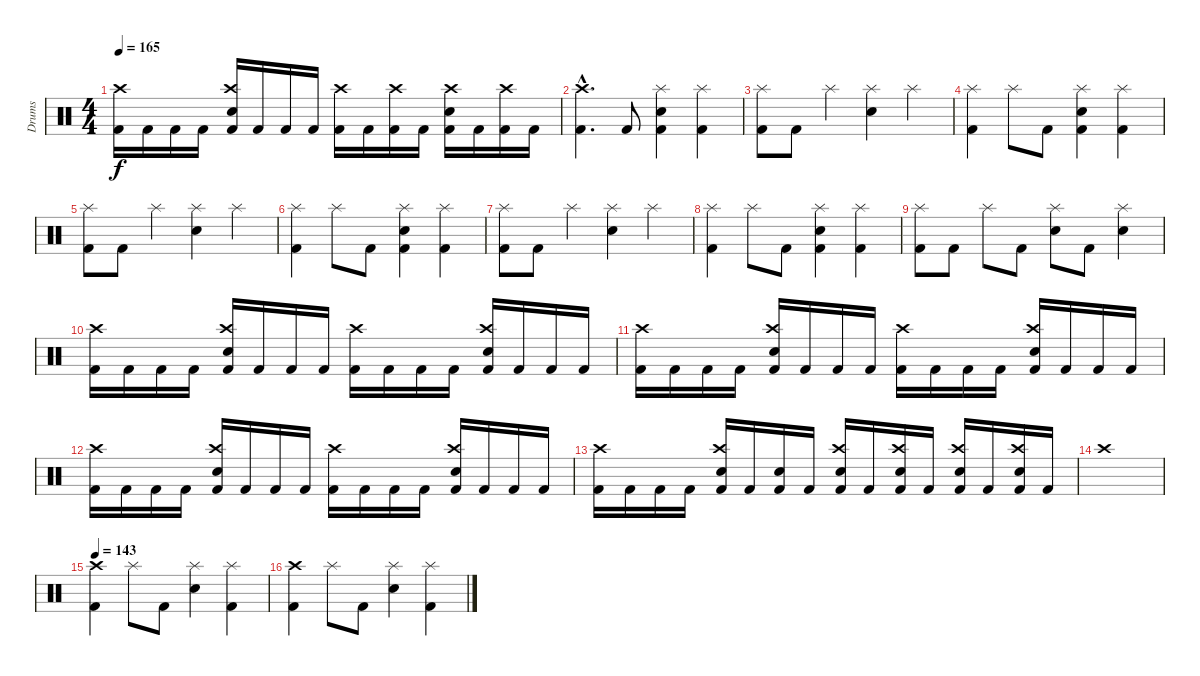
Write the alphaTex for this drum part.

\track ("Drums" "Drums") {instrument percussion}
\staff {score}
\articulation defaults
\ts (4 4)
\tempo 165
\clef neutral
\ks c
("Kick (hit) 2" "Crash high (hit)").16{dy f} "Kick (hit) 2".16 "Kick (hit) 2".16 "Kick (hit) 2".16 ("Kick (hit) 2" "Snare (hit) 2" "Crash high (hit)").16 "Kick (hit) 2".16 "Kick (hit) 2".16 "Kick (hit) 2".16 ("Kick (hit) 2" "Crash high (hit)").16 "Kick (hit) 2".16 ("Kick (hit) 2" "Crash high (hit)").16 "Kick (hit) 2".16 ("Kick (hit) 2" "Snare (hit) 2" "Crash high (hit)").16 "Kick (hit) 2".16 ("Kick (hit) 2" "Crash high (hit)").16 "Kick (hit) 2".16 |
("Kick (hit) 2"{hac} "Crash high (hit)"{hac}).4{d} "Kick (hit) 2".8 ("Kick (hit) 2" "Snare (hit) 2" "Splash (hit)").4 ("Kick (hit) 2" "Splash (hit)").4 |
("Kick (hit) 2" "Splash (hit)").8 "Kick (hit) 2".8 "Splash (hit)".4 ("Snare (hit) 2" "Splash (hit)").4 "Splash (hit)".4 |
("Kick (hit) 2" "Splash (hit)").4 "Splash (hit)".8 "Kick (hit) 2".8 ("Kick (hit) 2" "Snare (hit) 2" "Splash (hit)").4 ("Kick (hit) 2" "Splash (hit)").4 |
("Kick (hit) 2" "Splash (hit)").8 "Kick (hit) 2".8 "Splash (hit)".4 ("Snare (hit) 2" "Splash (hit)").4 "Splash (hit)".4 |
("Kick (hit) 2" "Splash (hit)").4 "Splash (hit)".8 "Kick (hit) 2".8 ("Kick (hit) 2" "Snare (hit) 2" "Splash (hit)").4 ("Kick (hit) 2" "Splash (hit)").4 |
("Kick (hit) 2" "Splash (hit)").8 "Kick (hit) 2".8 "Splash (hit)".4 ("Snare (hit) 2" "Splash (hit)").4 "Splash (hit)".4 |
("Kick (hit) 2" "Splash (hit)").4 "Splash (hit)".8 "Kick (hit) 2".8 ("Kick (hit) 2" "Snare (hit) 2" "Splash (hit)").4 ("Kick (hit) 2" "Splash (hit)").4 |
("Kick (hit) 2" "Splash (hit)").8 "Kick (hit) 2".8 "Splash (hit)".8 "Kick (hit) 2".8 ("Snare (hit) 2" "Splash (hit)").8 "Kick (hit) 2".8 ("Snare (hit) 2" "Splash (hit)").4 |
("Kick (hit) 2" "Crash high (hit)").16 "Kick (hit) 2".16 "Kick (hit) 2".16 "Kick (hit) 2".16 ("Kick (hit) 2" "Snare (hit) 2" "Crash high (hit)").16 "Kick (hit) 2".16 "Kick (hit) 2".16 "Kick (hit) 2".16 ("Kick (hit) 2" "Crash high (hit)").16 "Kick (hit) 2".16 "Kick (hit) 2".16 "Kick (hit) 2".16 ("Kick (hit) 2" "Snare (hit) 2" "Crash high (hit)").16 "Kick (hit) 2".16 "Kick (hit) 2".16 "Kick (hit) 2".16 |
("Kick (hit) 2" "Crash high (hit)").16 "Kick (hit) 2".16 "Kick (hit) 2".16 "Kick (hit) 2".16 ("Kick (hit) 2" "Snare (hit) 2" "Crash high (hit)").16 "Kick (hit) 2".16 "Kick (hit) 2".16 "Kick (hit) 2".16 ("Kick (hit) 2" "Crash high (hit)").16 "Kick (hit) 2".16 "Kick (hit) 2".16 "Kick (hit) 2".16 ("Kick (hit) 2" "Snare (hit) 2" "Crash high (hit)").16 "Kick (hit) 2".16 "Kick (hit) 2".16 "Kick (hit) 2".16 |
("Kick (hit) 2" "Crash high (hit)").16 "Kick (hit) 2".16 "Kick (hit) 2".16 "Kick (hit) 2".16 ("Kick (hit) 2" "Snare (hit) 2" "Crash high (hit)").16 "Kick (hit) 2".16 "Kick (hit) 2".16 "Kick (hit) 2".16 ("Kick (hit) 2" "Crash high (hit)").16 "Kick (hit) 2".16 "Kick (hit) 2".16 "Kick (hit) 2".16 ("Kick (hit) 2" "Snare (hit) 2" "Crash high (hit)").16 "Kick (hit) 2".16 "Kick (hit) 2".16 "Kick (hit) 2".16 |
("Kick (hit) 2" "Crash high (hit)").16 "Kick (hit) 2".16 "Kick (hit) 2".16 "Kick (hit) 2".16 ("Kick (hit) 2" "Snare (hit) 2" "Crash high (hit)").16 "Kick (hit) 2".16 ("Kick (hit) 2" "Snare (hit) 2").16 "Kick (hit) 2".16 ("Kick (hit) 2" "Snare (hit) 2" "Crash high (hit)").16 "Kick (hit) 2".16 ("Kick (hit) 2" "Snare (hit) 2" "Crash high (hit)").16 "Kick (hit) 2".16 ("Kick (hit) 2" "Snare (hit) 2" "Crash high (hit)").16 "Kick (hit) 2".16 ("Kick (hit) 2" "Snare (hit) 2" "Crash high (hit)").16 "Kick (hit) 2".16 |
"Crash high (hit)".1 |
\tempo 143
("Kick (hit) 2" "Crash high (hit)").4 "Splash (hit)".8 "Kick (hit) 2".8 ("Snare (hit) 2" "Splash (hit)").4 ("Kick (hit) 2" "Splash (hit)").4 |
("Kick (hit) 2" "Crash high (hit)").4 "Splash (hit)".8 "Kick (hit) 2".8 ("Snare (hit) 2" "Splash (hit)").4 ("Kick (hit) 2" "Splash (hit)").4
